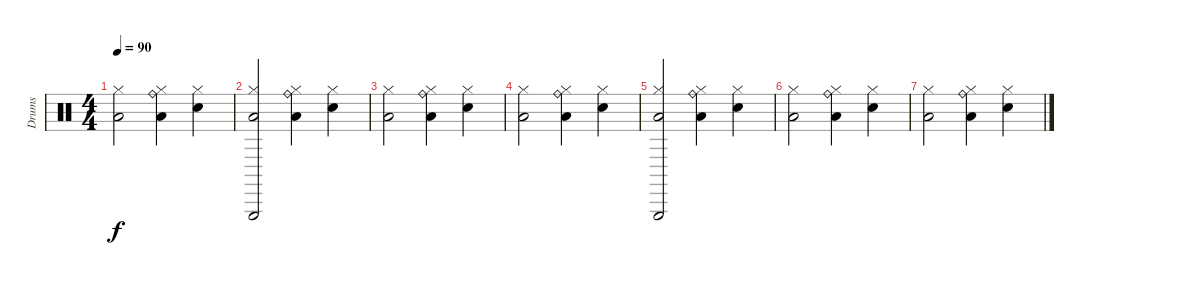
\track ("Drums" "Drums") {instrument percussion}
\staff {score}
\articulation defaults
\ts (4 4)
\tempo 90
\clef neutral
\ks c
("Hi-Hat (closed)" "Low Floor Tom (hit)").2{dy f} ("Hi-Hat (closed)" "Ride (bell)" "Low Floor Tom (hit)").4 ("Hi-Hat (closed)" "Electric Snare (hit)").4 |
("Triangle (hit)" "Hi-Hat (closed)" "Low Floor Tom (hit)").2 ("Hi-Hat (closed)" "Ride (bell)" "Low Floor Tom (hit)").4 ("Hi-Hat (closed)" "Electric Snare (hit)").4 |
("Hi-Hat (closed)" "Low Floor Tom (hit)").2 ("Hi-Hat (closed)" "Ride (bell)" "Low Floor Tom (hit)").4 ("Hi-Hat (closed)" "Electric Snare (hit)").4 |
("Hi-Hat (closed)" "Low Floor Tom (hit)").2 ("Hi-Hat (closed)" "Ride (bell)" "Low Floor Tom (hit)").4 ("Hi-Hat (closed)" "Electric Snare (hit)").4 |
("Triangle (hit)" "Hi-Hat (closed)" "Low Floor Tom (hit)").2 ("Hi-Hat (closed)" "Ride (bell)" "Low Floor Tom (hit)").4 ("Hi-Hat (closed)" "Electric Snare (hit)").4 |
("Hi-Hat (closed)" "Low Floor Tom (hit)").2 ("Hi-Hat (closed)" "Ride (bell)" "Low Floor Tom (hit)").4 ("Hi-Hat (closed)" "Electric Snare (hit)").4 |
("Hi-Hat (closed)" "Low Floor Tom (hit)").2 ("Hi-Hat (closed)" "Ride (bell)" "Low Floor Tom (hit)").4 ("Hi-Hat (closed)" "Electric Snare (hit)").4
